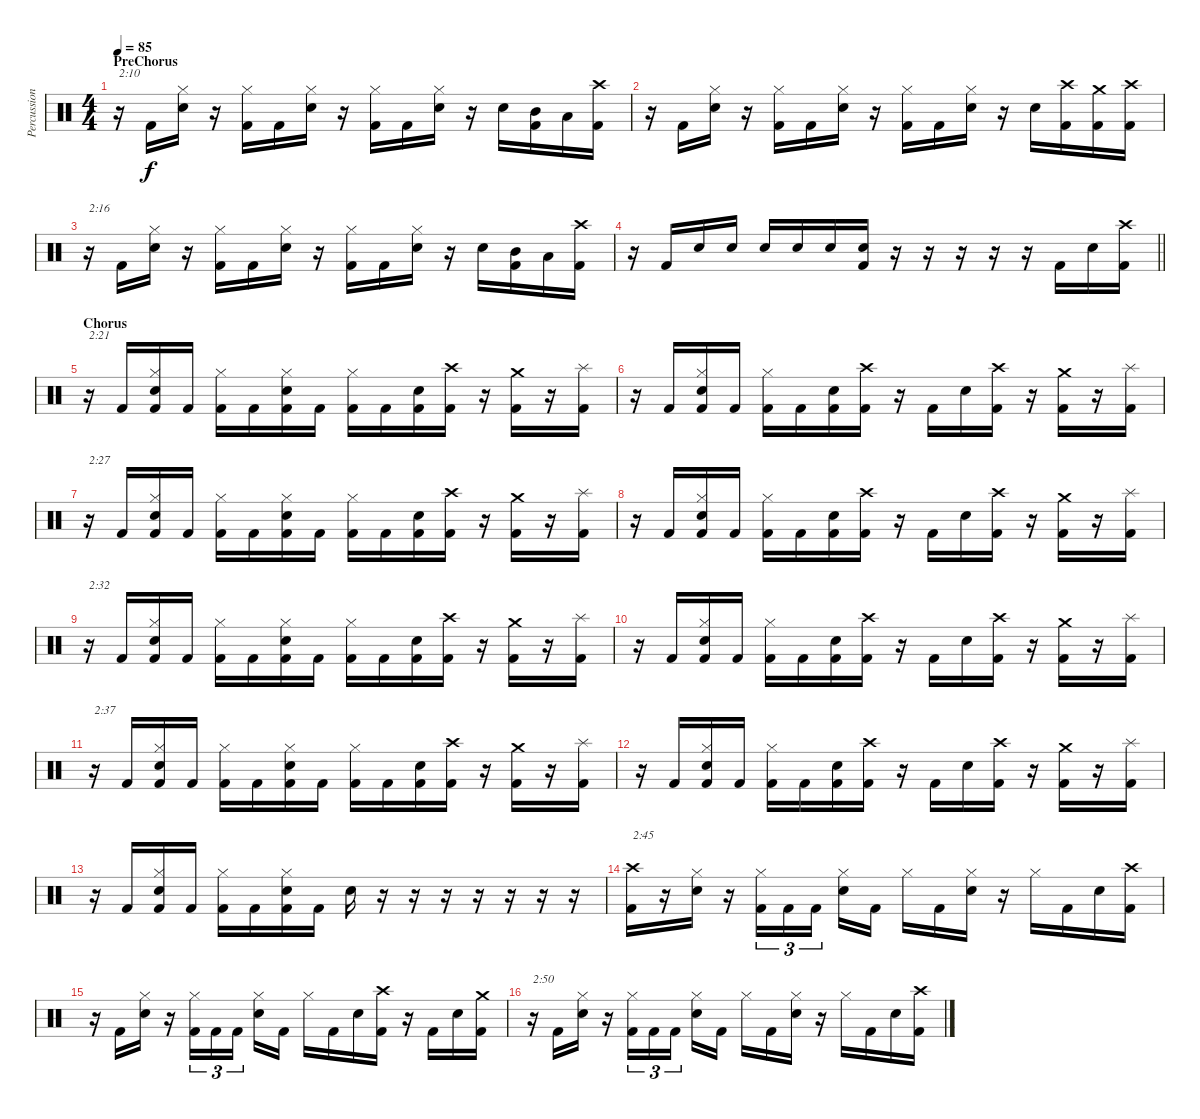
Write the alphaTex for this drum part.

\track ("Percussion" "Percussion") {instrument percussion}
\staff {score}
\articulation defaults
\ts (4 4)
\section ("" "PreChorus")
\tempo 85
\clef neutral
\ks c
r.16{txt "2:10" dy f} "Kick (hit) 2".16 ("Hi-Hat (closed)" "Snare (hit) 2").16 r.16 ("Hi-Hat (closed)" "Kick (hit) 2").16 "Kick (hit) 2".16 ("Hi-Hat (closed)" "Snare (hit) 2").16 r.16 ("Hi-Hat (closed)" "Kick (hit) 2").16 "Kick (hit) 2".16 ("Hi-Hat (closed)" "Snare (hit) 2").16 r.16 "Snare (hit) 2".16 ("Mid Tom (hit)" "Kick (hit) 2").16 "Low Tom (hit)".16 ("Crash high (hit)" "Kick (hit) 2").16 |
r.16 "Kick (hit) 2".16 ("Hi-Hat (closed)" "Snare (hit) 2").16 r.16 ("Hi-Hat (closed)" "Kick (hit) 2").16 "Kick (hit) 2".16 ("Hi-Hat (closed)" "Snare (hit) 2").16 r.16 ("Hi-Hat (closed)" "Kick (hit) 2").16 "Kick (hit) 2".16 ("Hi-Hat (closed)" "Snare (hit) 2").16 r.16 "Snare (hit) 2".16 ("Crash high (hit)" "Kick (hit) 2").16 ("Crash medium (hit)" "Kick (hit) 2").16 ("Crash high (hit)" "Kick (hit) 2").16 |
r.16{txt "2:16"} "Kick (hit) 2".16 ("Hi-Hat (closed)" "Snare (hit) 2").16 r.16 ("Hi-Hat (closed)" "Kick (hit) 2").16 "Kick (hit) 2".16 ("Hi-Hat (closed)" "Snare (hit) 2").16 r.16 ("Hi-Hat (closed)" "Kick (hit) 2").16 "Kick (hit) 2".16 ("Hi-Hat (closed)" "Snare (hit) 2").16 r.16 "Snare (hit) 2".16 ("Mid Tom (hit)" "Kick (hit) 2").16 "Low Tom (hit)".16 ("Crash high (hit)" "Kick (hit) 2").16 |
\barLineRight lightlight
r.16 "Kick (hit) 2".16 "Snare (hit) 2".16 "Snare (hit) 2".16 "Snare (hit) 2".16 "Snare (hit) 2".16 "Snare (hit) 2".16 ("Snare (hit) 2" "Kick (hit) 2").16 r.16 r.16 r.16 r.16 r.16 "Kick (hit) 2".16 "Snare (hit) 2".16 ("Crash high (hit)" "Kick (hit) 2").16 |
\section ("" "Chorus")
r.16{txt "2:21"} "Kick (hit) 2".16 ("Hi-Hat (closed)" "Snare (hit) 2" "Kick (hit) 2").16 "Kick (hit) 2".16 ("Hi-Hat (closed)" "Kick (hit) 2").16 "Kick (hit) 2".16 ("Hi-Hat (closed)" "Snare (hit) 2" "Kick (hit) 2").16 "Kick (hit) 2".16 ("Hi-Hat (closed)" "Kick (hit) 2").16 "Kick (hit) 2".16 ("Snare (hit) 2" "Kick (hit) 2").16 ("Crash high (hit)" "Kick (hit) 2").16 r.16 ("Crash medium (hit)" "Kick (hit) 2").16 r.16 ("Splash (hit)" "Kick (hit) 2").16 |
r.16 "Kick (hit) 2".16 ("Hi-Hat (closed)" "Snare (hit) 2" "Kick (hit) 2").16 "Kick (hit) 2".16 ("Hi-Hat (closed)" "Kick (hit) 2").16 "Kick (hit) 2".16 ("Snare (hit) 2" "Kick (hit) 2").16 ("Crash high (hit)" "Kick (hit) 2").16 r.16 "Kick (hit) 2".16 "Snare (hit) 2".16 ("Crash high (hit)" "Kick (hit) 2").16 r.16 ("Crash medium (hit)" "Kick (hit) 2").16 r.16 ("Splash (hit)" "Kick (hit) 2").16 |
r.16{txt "2:27"} "Kick (hit) 2".16 ("Hi-Hat (closed)" "Snare (hit) 2" "Kick (hit) 2").16 "Kick (hit) 2".16 ("Hi-Hat (closed)" "Kick (hit) 2").16 "Kick (hit) 2".16 ("Hi-Hat (closed)" "Snare (hit) 2" "Kick (hit) 2").16 "Kick (hit) 2".16 ("Hi-Hat (closed)" "Kick (hit) 2").16 "Kick (hit) 2".16 ("Snare (hit) 2" "Kick (hit) 2").16 ("Crash high (hit)" "Kick (hit) 2").16 r.16 ("Crash medium (hit)" "Kick (hit) 2").16 r.16 ("Splash (hit)" "Kick (hit) 2").16 |
r.16 "Kick (hit) 2".16 ("Hi-Hat (closed)" "Snare (hit) 2" "Kick (hit) 2").16 "Kick (hit) 2".16 ("Hi-Hat (closed)" "Kick (hit) 2").16 "Kick (hit) 2".16 ("Snare (hit) 2" "Kick (hit) 2").16 ("Crash high (hit)" "Kick (hit) 2").16 r.16 "Kick (hit) 2".16 "Snare (hit) 2".16 ("Crash high (hit)" "Kick (hit) 2").16 r.16 ("Crash medium (hit)" "Kick (hit) 2").16 r.16 ("Splash (hit)" "Kick (hit) 2").16 |
r.16{txt "2:32"} "Kick (hit) 2".16 ("Hi-Hat (closed)" "Snare (hit) 2" "Kick (hit) 2").16 "Kick (hit) 2".16 ("Hi-Hat (closed)" "Kick (hit) 2").16 "Kick (hit) 2".16 ("Hi-Hat (closed)" "Snare (hit) 2" "Kick (hit) 2").16 "Kick (hit) 2".16 ("Hi-Hat (closed)" "Kick (hit) 2").16 "Kick (hit) 2".16 ("Snare (hit) 2" "Kick (hit) 2").16 ("Crash high (hit)" "Kick (hit) 2").16 r.16 ("Crash medium (hit)" "Kick (hit) 2").16 r.16 ("Splash (hit)" "Kick (hit) 2").16 |
r.16 "Kick (hit) 2".16 ("Hi-Hat (closed)" "Snare (hit) 2" "Kick (hit) 2").16 "Kick (hit) 2".16 ("Hi-Hat (closed)" "Kick (hit) 2").16 "Kick (hit) 2".16 ("Snare (hit) 2" "Kick (hit) 2").16 ("Crash high (hit)" "Kick (hit) 2").16 r.16 "Kick (hit) 2".16 "Snare (hit) 2".16 ("Crash high (hit)" "Kick (hit) 2").16 r.16 ("Crash medium (hit)" "Kick (hit) 2").16 r.16 ("Splash (hit)" "Kick (hit) 2").16 |
r.16{txt "2:37"} "Kick (hit) 2".16 ("Hi-Hat (closed)" "Snare (hit) 2" "Kick (hit) 2").16 "Kick (hit) 2".16 ("Hi-Hat (closed)" "Kick (hit) 2").16 "Kick (hit) 2".16 ("Hi-Hat (closed)" "Snare (hit) 2" "Kick (hit) 2").16 "Kick (hit) 2".16 ("Hi-Hat (closed)" "Kick (hit) 2").16 "Kick (hit) 2".16 ("Snare (hit) 2" "Kick (hit) 2").16 ("Crash high (hit)" "Kick (hit) 2").16 r.16 ("Crash medium (hit)" "Kick (hit) 2").16 r.16 ("Splash (hit)" "Kick (hit) 2").16 |
r.16 "Kick (hit) 2".16 ("Hi-Hat (closed)" "Snare (hit) 2" "Kick (hit) 2").16 "Kick (hit) 2".16 ("Hi-Hat (closed)" "Kick (hit) 2").16 "Kick (hit) 2".16 ("Snare (hit) 2" "Kick (hit) 2").16 ("Crash high (hit)" "Kick (hit) 2").16 r.16 "Kick (hit) 2".16 "Snare (hit) 2".16 ("Crash high (hit)" "Kick (hit) 2").16 r.16 ("Crash medium (hit)" "Kick (hit) 2").16 r.16 ("Splash (hit)" "Kick (hit) 2").16 |
r.16 "Kick (hit) 2".16 ("Hi-Hat (closed)" "Snare (hit) 2" "Kick (hit) 2").16 "Kick (hit) 2".16 ("Hi-Hat (closed)" "Kick (hit) 2").16 "Kick (hit) 2".16 ("Hi-Hat (closed)" "Snare (hit) 2" "Kick (hit) 2").16 "Kick (hit) 2".16 "Snare (hit) 2".16 r.16 r.16 r.16 r.16 r.16 r.16 r.16 |
("Crash high (hit)" "Kick (hit) 2").16{txt "2:45"} r.16 ("Hi-Hat (closed)" "Snare (hit) 2").16 r.16 ("Hi-Hat (closed)" "Kick (hit) 2").16{tu (3 2)} "Kick (hit) 2".16{tu (3 2)} "Kick (hit) 2".16{tu (3 2)} ("Hi-Hat (closed)" "Snare (hit) 2").16 "Kick (hit) 2".16 "Hi-Hat (closed)".16 "Kick (hit) 2".16 ("Hi-Hat (closed)" "Snare (hit) 2").16 r.16 "Hi-Hat (closed)".16 "Kick (hit) 2".16 "Snare (hit) 2".16 ("Crash high (hit)" "Kick (hit) 2").16 |
r.16 "Kick (hit) 2".16 ("Hi-Hat (closed)" "Snare (hit) 2").16 r.16 ("Hi-Hat (closed)" "Kick (hit) 2").16{tu (3 2)} "Kick (hit) 2".16{tu (3 2)} "Kick (hit) 2".16{tu (3 2)} ("Hi-Hat (closed)" "Snare (hit) 2").16 "Kick (hit) 2".16 "Hi-Hat (closed)".16 "Kick (hit) 2".16 "Snare (hit) 2".16 ("Crash high (hit)" "Kick (hit) 2").16 r.16 "Kick (hit) 2".16 "Snare (hit) 2".16 ("Crash medium (hit)" "Kick (hit) 2").16 |
r.16{txt "2:50"} "Kick (hit) 2".16 ("Hi-Hat (closed)" "Snare (hit) 2").16 r.16 ("Hi-Hat (closed)" "Kick (hit) 2").16{tu (3 2)} "Kick (hit) 2".16{tu (3 2)} "Kick (hit) 2".16{tu (3 2)} ("Hi-Hat (closed)" "Snare (hit) 2").16 "Kick (hit) 2".16 "Hi-Hat (closed)".16 "Kick (hit) 2".16 ("Hi-Hat (closed)" "Snare (hit) 2").16 r.16 "Hi-Hat (closed)".16 "Kick (hit) 2".16 "Snare (hit) 2".16 ("Crash high (hit)" "Kick (hit) 2").16
